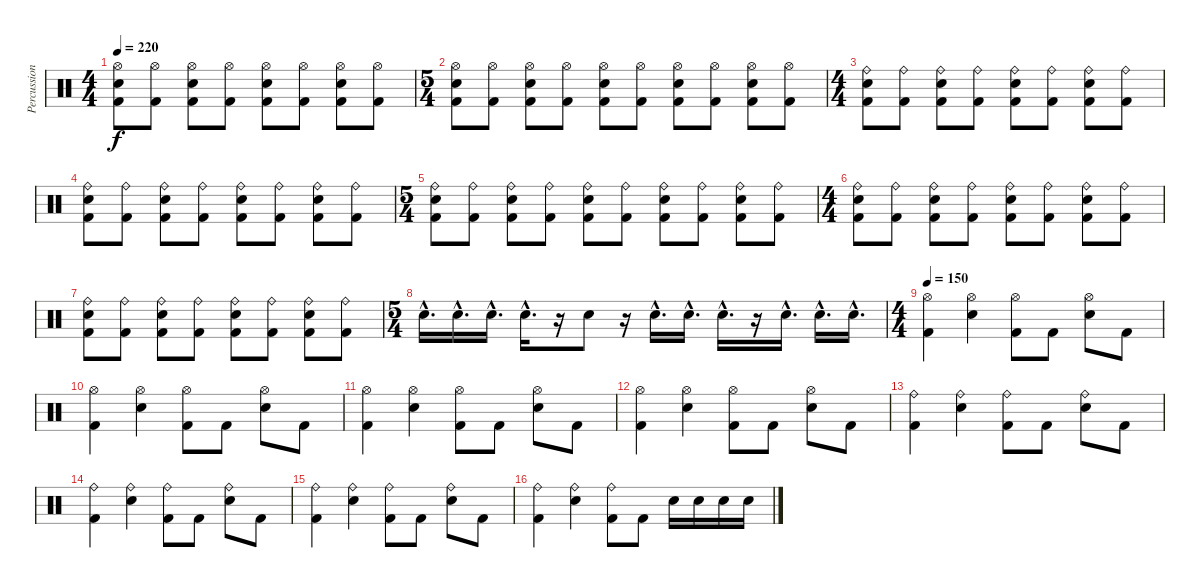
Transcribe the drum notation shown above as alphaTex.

\track ("Percussions" "Percussion") {instrument percussion}
\staff {score}
\articulation defaults
\ts (4 4)
\tempo 220
\clef neutral
\ks c
("Kick (hit) 2" "Snare (hit) 2" "Hi-Hat (open)").8{dy f} ("Kick (hit) 2" "Hi-Hat (open)").8 ("Kick (hit) 2" "Snare (hit) 2" "Hi-Hat (open)").8 ("Kick (hit) 2" "Hi-Hat (open)").8 ("Kick (hit) 2" "Snare (hit) 2" "Hi-Hat (open)").8 ("Kick (hit) 2" "Hi-Hat (open)").8 ("Kick (hit) 2" "Snare (hit) 2" "Hi-Hat (open)").8 ("Kick (hit) 2" "Hi-Hat (open)").8 |
\ts (5 4)
("Kick (hit) 2" "Snare (hit) 2" "Hi-Hat (open)").8 ("Kick (hit) 2" "Hi-Hat (open)").8 ("Kick (hit) 2" "Snare (hit) 2" "Hi-Hat (open)").8 ("Kick (hit) 2" "Hi-Hat (open)").8 ("Kick (hit) 2" "Snare (hit) 2" "Hi-Hat (open)").8 ("Kick (hit) 2" "Hi-Hat (open)").8 ("Kick (hit) 2" "Snare (hit) 2" "Hi-Hat (open)").8 ("Kick (hit) 2" "Hi-Hat (open)").8 ("Kick (hit) 2" "Snare (hit) 2" "Hi-Hat (open)").8 ("Kick (hit) 2" "Hi-Hat (open)").8 |
\ts (4 4)
("Kick (hit) 2" "Snare (hit) 2" "Ride (bell)").8 ("Kick (hit) 2" "Ride (bell)").8 ("Kick (hit) 2" "Snare (hit) 2" "Ride (bell)").8 ("Kick (hit) 2" "Ride (bell)").8 ("Kick (hit) 2" "Snare (hit) 2" "Ride (bell)").8 ("Kick (hit) 2" "Ride (bell)").8 ("Kick (hit) 2" "Snare (hit) 2" "Ride (bell)").8 ("Kick (hit) 2" "Ride (bell)").8 |
("Kick (hit) 2" "Snare (hit) 2" "Ride (bell)").8 ("Kick (hit) 2" "Ride (bell)").8 ("Kick (hit) 2" "Snare (hit) 2" "Ride (bell)").8 ("Kick (hit) 2" "Ride (bell)").8 ("Kick (hit) 2" "Snare (hit) 2" "Ride (bell)").8 ("Kick (hit) 2" "Ride (bell)").8 ("Kick (hit) 2" "Snare (hit) 2" "Ride (bell)").8 ("Kick (hit) 2" "Ride (bell)").8 |
\ts (5 4)
("Kick (hit) 2" "Snare (hit) 2" "Ride (bell)").8 ("Kick (hit) 2" "Ride (bell)").8 ("Kick (hit) 2" "Snare (hit) 2" "Ride (bell)").8 ("Kick (hit) 2" "Ride (bell)").8 ("Kick (hit) 2" "Snare (hit) 2" "Ride (bell)").8 ("Kick (hit) 2" "Ride (bell)").8 ("Kick (hit) 2" "Snare (hit) 2" "Ride (bell)").8 ("Kick (hit) 2" "Ride (bell)").8 ("Kick (hit) 2" "Snare (hit) 2" "Ride (bell)").8 ("Kick (hit) 2" "Ride (bell)").8 |
\ts (4 4)
("Kick (hit) 2" "Snare (hit) 2" "Ride (bell)").8 ("Kick (hit) 2" "Ride (bell)").8 ("Kick (hit) 2" "Snare (hit) 2" "Ride (bell)").8 ("Kick (hit) 2" "Ride (bell)").8 ("Kick (hit) 2" "Snare (hit) 2" "Ride (bell)").8 ("Kick (hit) 2" "Ride (bell)").8 ("Kick (hit) 2" "Snare (hit) 2" "Ride (bell)").8 ("Kick (hit) 2" "Ride (bell)").8 |
("Kick (hit) 2" "Snare (hit) 2" "Ride (bell)").8 ("Kick (hit) 2" "Ride (bell)").8 ("Kick (hit) 2" "Snare (hit) 2" "Ride (bell)").8 ("Kick (hit) 2" "Ride (bell)").8 ("Kick (hit) 2" "Snare (hit) 2" "Ride (bell)").8 ("Kick (hit) 2" "Ride (bell)").8 ("Kick (hit) 2" "Snare (hit) 2" "Ride (bell)").8 ("Kick (hit) 2" "Ride (bell)").8 |
\ts (5 4)
"Snare (hit) 2"{hac}.16{d} "Snare (hit) 2"{hac}.16{d} "Snare (hit) 2"{hac}.16{d} "Snare (hit) 2"{hac}.16{d} r.16 "Snare (hit) 2".8 r.16 "Snare (hit) 2"{hac}.16{d} "Snare (hit) 2"{hac}.16{d} "Snare (hit) 2"{hac}.16{d} r.16 "Snare (hit) 2"{hac}.16{d} "Snare (hit) 2"{hac}.16{d} "Snare (hit) 2"{hac}.16{d} |
\ts (4 4)
\tempo 150
("Kick (hit) 2" "Hi-Hat (open)").4 ("Snare (hit) 2" "Hi-Hat (open)").4 ("Kick (hit) 2" "Hi-Hat (open)").8 "Kick (hit) 2".8 ("Snare (hit) 2" "Hi-Hat (open)").8 "Kick (hit) 2".8 |
("Kick (hit) 2" "Hi-Hat (open)").4 ("Snare (hit) 2" "Hi-Hat (open)").4 ("Kick (hit) 2" "Hi-Hat (open)").8 "Kick (hit) 2".8 ("Snare (hit) 2" "Hi-Hat (open)").8 "Kick (hit) 2".8 |
("Kick (hit) 2" "Hi-Hat (open)").4 ("Snare (hit) 2" "Hi-Hat (open)").4 ("Kick (hit) 2" "Hi-Hat (open)").8 "Kick (hit) 2".8 ("Snare (hit) 2" "Hi-Hat (open)").8 "Kick (hit) 2".8 |
("Kick (hit) 2" "Hi-Hat (open)").4 ("Snare (hit) 2" "Hi-Hat (open)").4 ("Kick (hit) 2" "Hi-Hat (open)").8 "Kick (hit) 2".8 ("Snare (hit) 2" "Hi-Hat (open)").8 "Kick (hit) 2".8 |
("Kick (hit) 2" "Ride (bell)").4 ("Snare (hit) 2" "Ride (bell)").4 ("Kick (hit) 2" "Ride (bell)").8 "Kick (hit) 2".8 ("Snare (hit) 2" "Ride (bell)").8 "Kick (hit) 2".8 |
("Kick (hit) 2" "Ride (bell)").4 ("Snare (hit) 2" "Ride (bell)").4 ("Kick (hit) 2" "Ride (bell)").8 "Kick (hit) 2".8 ("Snare (hit) 2" "Ride (bell)").8 "Kick (hit) 2".8 |
("Kick (hit) 2" "Ride (bell)").4 ("Snare (hit) 2" "Ride (bell)").4 ("Kick (hit) 2" "Ride (bell)").8 "Kick (hit) 2".8 ("Snare (hit) 2" "Ride (bell)").8 "Kick (hit) 2".8 |
("Kick (hit) 2" "Ride (bell)").4 ("Snare (hit) 2" "Ride (bell)").4 ("Kick (hit) 2" "Ride (bell)").8 "Kick (hit) 2".8 "Snare (hit) 2".16 "Snare (hit) 2".16 "Snare (hit) 2".16 "Snare (hit) 2".16
